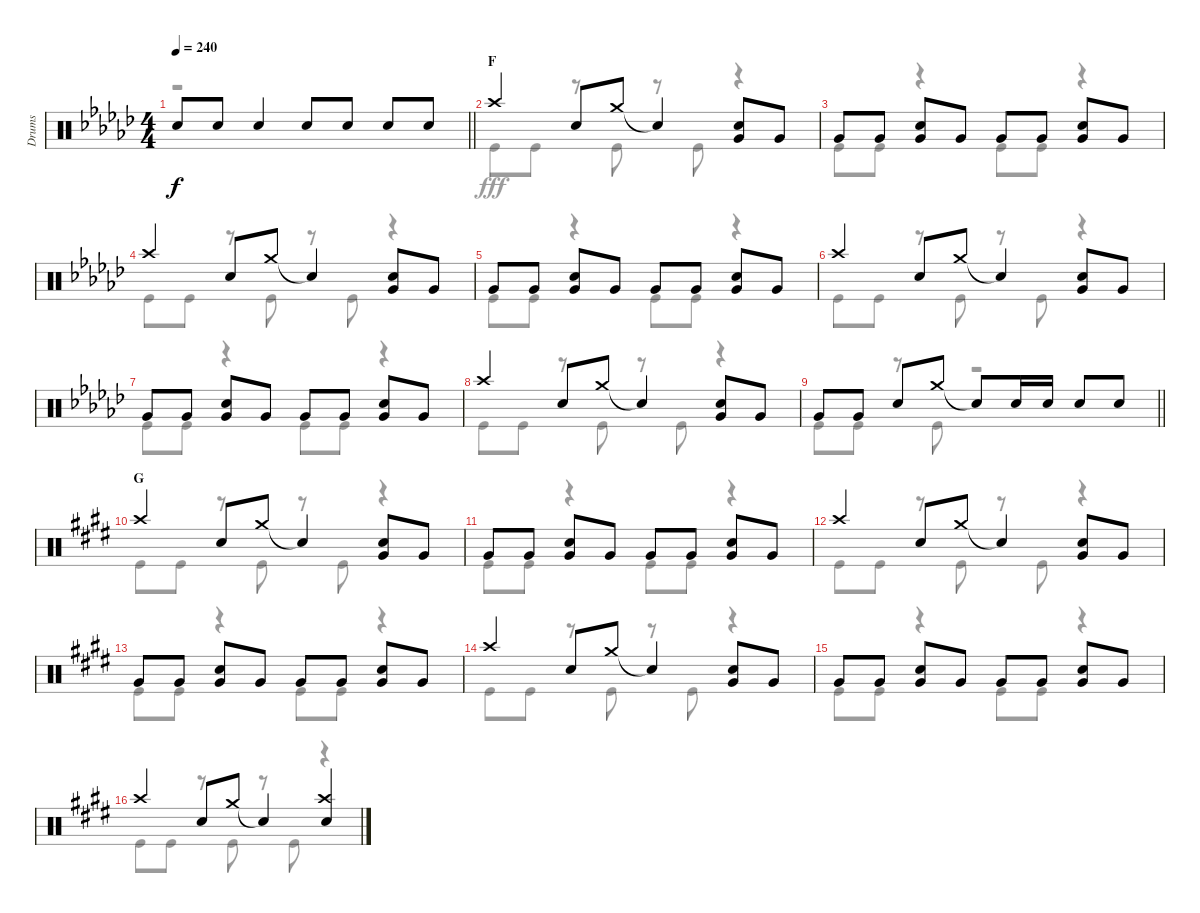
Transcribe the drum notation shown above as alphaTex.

\track ("Drums" "Drums") {instrument percussion}
\staff {score}
\articulation defaults
\voice
\ts (4 4)
\tempo 240
\clef neutral
\barLineRight lightlight
\ks gb "Snare (hit) 2".8{dy f} "Snare (hit) 2".8 "Snare (hit) 2".4 "Snare (hit) 2".8 "Snare (hit) 2".8 "Snare (hit) 2".8 "Snare (hit) 2".8
|
\section ("" "F")
"Crash high (hit)".4 "Snare (hit) 2".8 "Crash medium (hit)".8 "Snare (hit)"{t}.4 ("Snare (hit) 2" "Very Low Tom (hit)").8 "Very Low Tom (hit)".8 |
"Very Low Tom (hit)".8 "Very Low Tom (hit)".8 ("Snare (hit) 2" "Very Low Tom (hit)").8 "Very Low Tom (hit)".8 "Very Low Tom (hit)".8 "Very Low Tom (hit)".8 ("Snare (hit) 2" "Very Low Tom (hit)").8 "Very Low Tom (hit)".8 |
"Crash high (hit)".4 "Snare (hit) 2".8 "Crash medium (hit)".8 "Snare (hit)"{t}.4 ("Snare (hit) 2" "Very Low Tom (hit)").8 "Very Low Tom (hit)".8 |
"Very Low Tom (hit)".8 "Very Low Tom (hit)".8 ("Snare (hit) 2" "Very Low Tom (hit)").8 "Very Low Tom (hit)".8 "Very Low Tom (hit)".8 "Very Low Tom (hit)".8 ("Snare (hit) 2" "Very Low Tom (hit)").8 "Very Low Tom (hit)".8 |
"Crash high (hit)".4 "Snare (hit) 2".8 "Crash medium (hit)".8 "Snare (hit)"{t}.4 ("Snare (hit) 2" "Very Low Tom (hit)").8 "Very Low Tom (hit)".8 |
"Very Low Tom (hit)".8 "Very Low Tom (hit)".8 ("Snare (hit) 2" "Very Low Tom (hit)").8 "Very Low Tom (hit)".8 "Very Low Tom (hit)".8 "Very Low Tom (hit)".8 ("Snare (hit) 2" "Very Low Tom (hit)").8 "Very Low Tom (hit)".8 |
"Crash high (hit)".4 "Snare (hit) 2".8 "Crash medium (hit)".8 "Snare (hit)"{t}.4 ("Snare (hit) 2" "Very Low Tom (hit)").8 "Very Low Tom (hit)".8 |
\barLineRight lightlight "Very Low Tom (hit)".8 "Very Low Tom (hit)".8 "Snare (hit) 2".8 "Crash medium (hit)".8 "Snare (hit)"{t}.8 "Snare (hit) 2".16 "Snare (hit) 2".16 "Snare (hit) 2".8 "Snare (hit) 2".8
|
\section ("" "G")
\ks e "Crash high (hit)".4 "Snare (hit) 2".8 "Crash medium (hit)".8 "Snare (hit)"{t}.4
("Snare (hit) 2" "Very Low Tom (hit)").8 "Very Low Tom (hit)".8 |
"Very Low Tom (hit)".8 "Very Low Tom (hit)".8 ("Snare (hit) 2" "Very Low Tom (hit)").8 "Very Low Tom (hit)".8 "Very Low Tom (hit)".8 "Very Low Tom (hit)".8 ("Snare (hit) 2" "Very Low Tom (hit)").8 "Very Low Tom (hit)".8 |
"Crash high (hit)".4 "Snare (hit) 2".8 "Crash medium (hit)".8 "Snare (hit)"{t}.4 ("Snare (hit) 2" "Very Low Tom (hit)").8 "Very Low Tom (hit)".8 |
"Very Low Tom (hit)".8 "Very Low Tom (hit)".8 ("Snare (hit) 2" "Very Low Tom (hit)").8 "Very Low Tom (hit)".8 "Very Low Tom (hit)".8 "Very Low Tom (hit)".8 ("Snare (hit) 2" "Very Low Tom (hit)").8 "Very Low Tom (hit)".8 |
"Crash high (hit)".4 "Snare (hit) 2".8 "Crash medium (hit)".8 "Snare (hit)"{t}.4 ("Snare (hit) 2" "Very Low Tom (hit)").8 "Very Low Tom (hit)".8 |
"Very Low Tom (hit)".8 "Very Low Tom (hit)".8 ("Snare (hit) 2" "Very Low Tom (hit)").8 "Very Low Tom (hit)".8 "Very Low Tom (hit)".8 "Very Low Tom (hit)".8 ("Snare (hit) 2" "Very Low Tom (hit)").8 "Very Low Tom (hit)".8 |
"Crash high (hit)".4 "Snare (hit) 2".8 "Crash medium (hit)".8 "Snare (hit)"{t}.4 ("Crash high (hit)" "Snare (hit) 2").4
\voice
\clef neutral
\ottava regular
\simile none
\barLineRight lightlight
\ks gb
r.1{dy fff} |
"Kick (hit)".8 "Kick (hit)".8 r.8 "Kick (hit)".8 r.8 "Kick (hit)".8 r.4 |
"Kick (hit)".8 "Kick (hit)".8 r.4 "Kick (hit)".8 "Kick (hit)".8 r.4 |
"Kick (hit)".8 "Kick (hit)".8 r.8 "Kick (hit)".8 r.8 "Kick (hit)".8 r.4 |
"Kick (hit)".8 "Kick (hit)".8 r.4 "Kick (hit)".8 "Kick (hit)".8 r.4 |
"Kick (hit)".8 "Kick (hit)".8 r.8 "Kick (hit)".8 r.8 "Kick (hit)".8 r.4 |
"Kick (hit)".8 "Kick (hit)".8 r.4 "Kick (hit)".8 "Kick (hit)".8 r.4 |
"Kick (hit)".8 "Kick (hit)".8 r.8 "Kick (hit)".8 r.8 "Kick (hit)".8 r.4 |
\barLineRight lightlight "Kick (hit)".8 "Kick (hit)".8
r.8 "Kick (hit)".8 r.2 |
\ks e "Kick (hit)".8 "Kick (hit)".8
r.8 "Kick (hit)".8 r.8 "Kick (hit)".8 r.4 |
"Kick (hit)".8 "Kick (hit)".8 r.4 "Kick (hit)".8 "Kick (hit)".8 r.4 |
"Kick (hit)".8 "Kick (hit)".8 r.8 "Kick (hit)".8 r.8 "Kick (hit)".8 r.4 |
"Kick (hit)".8 "Kick (hit)".8 r.4 "Kick (hit)".8 "Kick (hit)".8 r.4 |
"Kick (hit)".8 "Kick (hit)".8 r.8 "Kick (hit)".8 r.8 "Kick (hit)".8 r.4 |
"Kick (hit)".8 "Kick (hit)".8 r.4 "Kick (hit)".8 "Kick (hit)".8 r.4 |
"Kick (hit)".8 "Kick (hit)".8 r.8 "Kick (hit)".8 r.8 "Kick (hit)".8 r.4
